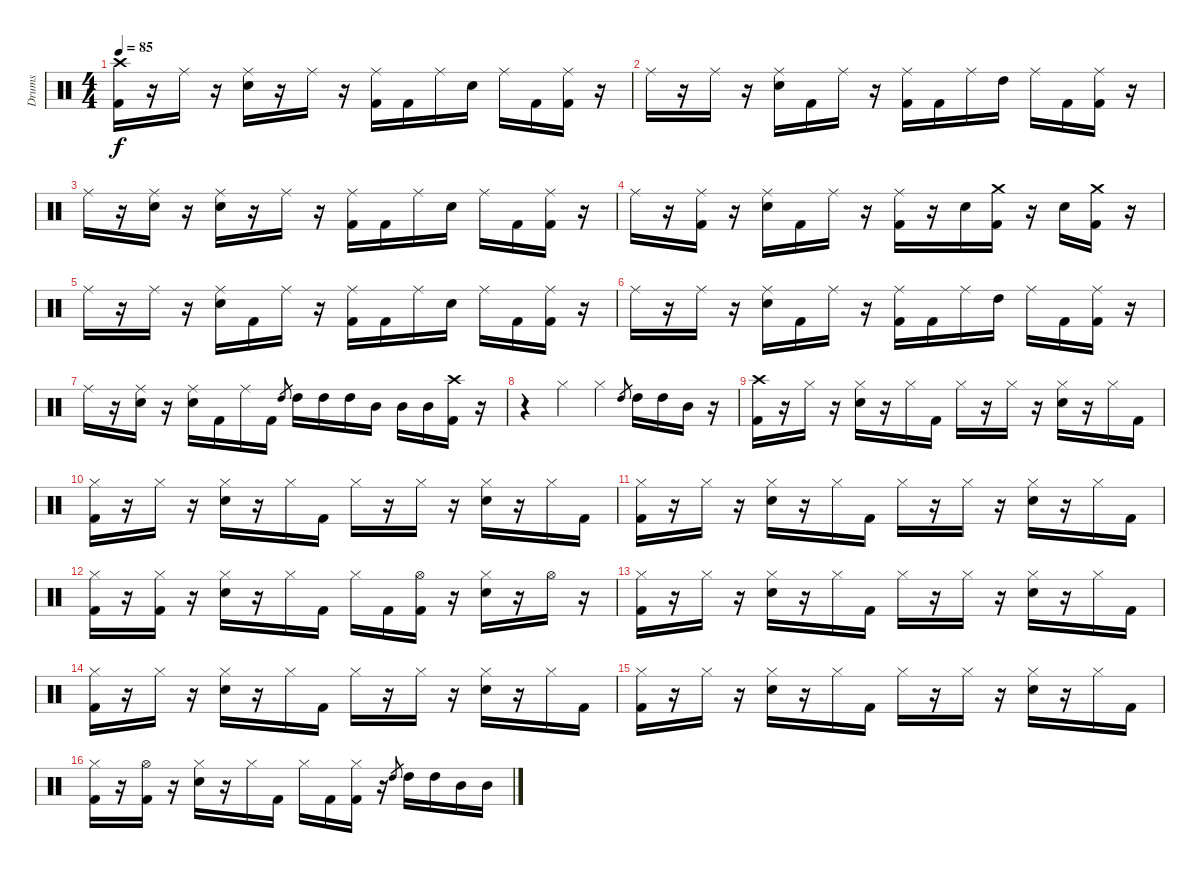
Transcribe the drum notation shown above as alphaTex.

\track ("Drums" "Drums") {instrument percussion}
\staff {score}
\articulation defaults
\ts (4 4)
\tempo 85
\clef neutral
\ks c
("Crash high (hit)" "Kick (hit) 2").16{dy f} r.16 "Ride (middle)".16 r.16 ("Ride (middle)" "Electric Snare (hit)").16 r.16 "Ride (middle)".16 r.16 ("Ride (middle)" "Kick (hit) 2").16 "Kick (hit) 2".16 "Ride (middle)".16 "Electric Snare (hit)".16 "Ride (middle)".16 "Kick (hit) 2".16 ("Ride (middle)" "Kick (hit) 2").16 r.16 |
"Ride (middle)".16 r.16 "Ride (middle)".16 r.16 ("Ride (middle)" "Electric Snare (hit)").16 "Kick (hit) 2".16 "Ride (middle)".16 r.16 ("Ride (middle)" "Kick (hit) 2").16 "Kick (hit) 2".16 "Ride (middle)".16 "High Tom (hit)".16 "Ride (middle)".16 "Kick (hit) 2".16 ("Ride (middle)" "Kick (hit) 2").16 r.16 |
"Ride (middle)".16 r.16 ("Ride (middle)" "Electric Snare (hit)").16 r.16 ("Ride (middle)" "Electric Snare (hit)").16 r.16 "Ride (middle)".16 r.16 ("Ride (middle)" "Kick (hit) 2").16 "Kick (hit) 2".16 "Ride (middle)".16 "Electric Snare (hit)".16 "Ride (middle)".16 "Kick (hit) 2".16 ("Ride (middle)" "Kick (hit) 2").16 r.16 |
"Ride (middle)".16 r.16 ("Ride (middle)" "Kick (hit) 2").16 r.16 ("Ride (middle)" "Electric Snare (hit)").16 "Kick (hit) 2".16 "Ride (middle)".16 r.16 ("Ride (middle)" "Kick (hit) 2").16 r.16 "Electric Snare (hit)".16 ("Crash medium (hit)" "Kick (hit) 2").16 r.16 "Electric Snare (hit)".16 ("Crash medium (hit)" "Kick (hit) 2").16 r.16 |
"Ride (middle)".16 r.16 "Ride (middle)".16 r.16 ("Ride (middle)" "Electric Snare (hit)").16 "Kick (hit) 2".16 "Ride (middle)".16 r.16 ("Ride (middle)" "Kick (hit) 2").16 "Kick (hit) 2".16 "Ride (middle)".16 "Electric Snare (hit)".16 "Ride (middle)".16 "Kick (hit) 2".16 ("Ride (middle)" "Kick (hit) 2").16 r.16 |
"Ride (middle)".16 r.16 "Ride (middle)".16 r.16 ("Ride (middle)" "Electric Snare (hit)").16 "Kick (hit) 2".16 "Ride (middle)".16 r.16 ("Ride (middle)" "Kick (hit) 2").16 "Kick (hit) 2".16 "Ride (middle)".16 "High Tom (hit)".16 "Ride (middle)".16 "Kick (hit) 2".16 ("Ride (middle)" "Kick (hit) 2").16 r.16 |
"Ride (middle)".16 r.16 ("Ride (middle)" "Electric Snare (hit)").16 r.16 ("Ride (middle)" "Electric Snare (hit)").16 "Kick (hit) 2".16 "Ride (middle)".16 "Kick (hit) 2".16 "High Tom (hit)".8{gr} "High Tom (hit)".16 "High Tom (hit)".16 "High Tom (hit)".16 "Mid Tom (hit)".16 "Mid Tom (hit)".16 "Mid Tom (hit)".16 ("Crash high (hit)" "Kick (hit) 2").16 r.16 |
r.4 "Hi-Hat (closed)".4 "Hi-Hat (closed)".4 "High Tom (hit)".8{gr} "High Tom (hit)".16 "High Tom (hit)".16 "Mid Tom (hit)".16 r.16 |
("Crash high (hit)" "Kick (hit) 2").16 r.16 "Hi-Hat (closed)".16 r.16 ("Hi-Hat (closed)" "Electric Snare (hit)").16 r.16 "Hi-Hat (closed)".16 "Kick (hit) 2".16 "Hi-Hat (closed)".16 r.16 "Hi-Hat (closed)".16 r.16 ("Hi-Hat (closed)" "Electric Snare (hit)").16 r.16 "Hi-Hat (closed)".16 "Kick (hit) 2".16 |
("Hi-Hat (closed)" "Kick (hit) 2").16 r.16 "Hi-Hat (closed)".16 r.16 ("Hi-Hat (closed)" "Electric Snare (hit)").16 r.16 "Hi-Hat (closed)".16 "Kick (hit) 2".16 "Hi-Hat (closed)".16 r.16 "Hi-Hat (closed)".16 r.16 ("Hi-Hat (closed)" "Electric Snare (hit)").16 r.16 "Hi-Hat (closed)".16 "Kick (hit) 2".16 |
("Hi-Hat (closed)" "Kick (hit) 2").16 r.16 "Hi-Hat (closed)".16 r.16 ("Hi-Hat (closed)" "Electric Snare (hit)").16 r.16 "Hi-Hat (closed)".16 "Kick (hit) 2".16 "Hi-Hat (closed)".16 r.16 "Hi-Hat (closed)".16 r.16 ("Hi-Hat (closed)" "Electric Snare (hit)").16 r.16 "Hi-Hat (closed)".16 "Kick (hit) 2".16 |
("Hi-Hat (closed)" "Kick (hit) 2").16 r.16 ("Hi-Hat (closed)" "Kick (hit) 2").16 r.16 ("Hi-Hat (closed)" "Electric Snare (hit)").16 r.16 "Hi-Hat (closed)".16 "Kick (hit) 2".16 "Hi-Hat (closed)".16 "Kick (hit) 2".16 ("Hi-Hat (open)" "Kick (hit) 2").16 r.16 ("Hi-Hat (closed)" "Electric Snare (hit)").16 r.16 "Hi-Hat (open)".16 r.16 |
("Hi-Hat (closed)" "Kick (hit) 2").16 r.16 "Hi-Hat (closed)".16 r.16 ("Hi-Hat (closed)" "Electric Snare (hit)").16 r.16 "Hi-Hat (closed)".16 "Kick (hit) 2".16 "Hi-Hat (closed)".16 r.16 "Hi-Hat (closed)".16 r.16 ("Hi-Hat (closed)" "Electric Snare (hit)").16 r.16 "Hi-Hat (closed)".16 "Kick (hit) 2".16 |
("Hi-Hat (closed)" "Kick (hit) 2").16 r.16 "Hi-Hat (closed)".16 r.16 ("Hi-Hat (closed)" "Electric Snare (hit)").16 r.16 "Hi-Hat (closed)".16 "Kick (hit) 2".16 "Hi-Hat (closed)".16 r.16 "Hi-Hat (closed)".16 r.16 ("Hi-Hat (closed)" "Electric Snare (hit)").16 r.16 "Hi-Hat (closed)".16 "Kick (hit) 2".16 |
("Hi-Hat (closed)" "Kick (hit) 2").16 r.16 "Hi-Hat (closed)".16 r.16 ("Hi-Hat (closed)" "Electric Snare (hit)").16 r.16 "Hi-Hat (closed)".16 "Kick (hit) 2".16 "Hi-Hat (closed)".16 r.16 "Hi-Hat (closed)".16 r.16 ("Hi-Hat (closed)" "Electric Snare (hit)").16 r.16 "Hi-Hat (closed)".16 "Kick (hit) 2".16 |
("Hi-Hat (closed)" "Kick (hit) 2").16 r.16 ("Hi-Hat (open)" "Kick (hit) 2").16 r.16 ("Hi-Hat (closed)" "Electric Snare (hit)").16 r.16 "Hi-Hat (closed)".16 "Kick (hit) 2".16 "Hi-Hat (closed)".16 "Kick (hit) 2".16 ("Hi-Hat (closed)" "Kick (hit) 2").16 r.16 "High Tom (hit)".8{gr} "High Tom (hit)".16 "High Tom (hit)".16 "Mid Tom (hit)".16 "Mid Tom (hit)".16
